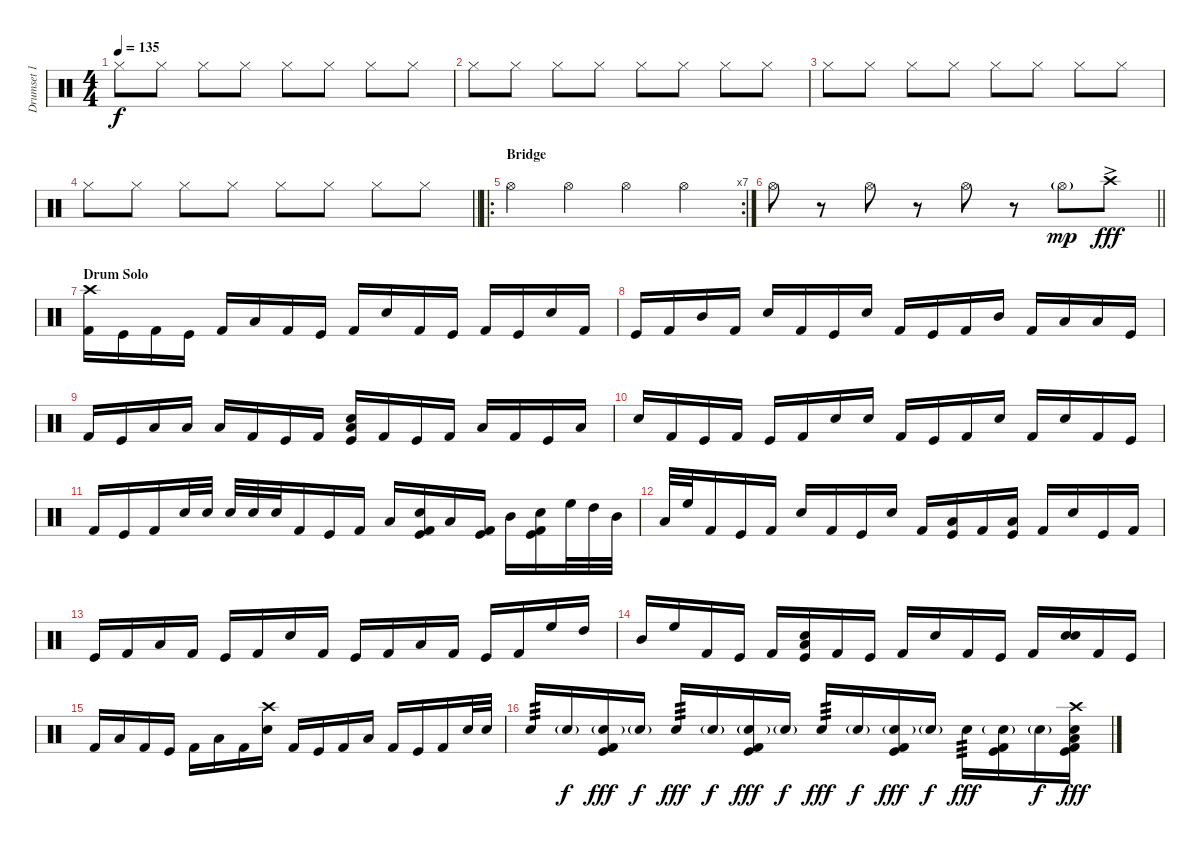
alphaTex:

\track ("Drumset 1" "Drumset 1") {instrument percussion}
\staff {score}
\articulation defaults
\ts (4 4)
\tempo 135
\clef neutral
\ks c "Hi-Hat (closed)".8{dy f} "Hi-Hat (closed)".8 "Hi-Hat (closed)".8 "Hi-Hat (closed)".8 "Hi-Hat (closed)".8 "Hi-Hat (closed)".8 "Hi-Hat (closed)".8 "Hi-Hat (closed)".8
|
"Hi-Hat (closed)".8 "Hi-Hat (closed)".8 "Hi-Hat (closed)".8 "Hi-Hat (closed)".8 "Hi-Hat (closed)".8 "Hi-Hat (closed)".8 "Hi-Hat (closed)".8 "Hi-Hat (closed)".8 |
"Hi-Hat (closed)".8 "Hi-Hat (closed)".8 "Hi-Hat (closed)".8 "Hi-Hat (closed)".8 "Hi-Hat (closed)".8 "Hi-Hat (closed)".8 "Hi-Hat (closed)".8 "Hi-Hat (closed)".8 |
\barLineRight lightlight "Hi-Hat (closed)".8 "Hi-Hat (closed)".8 "Hi-Hat (closed)".8 "Hi-Hat (closed)".8 "Hi-Hat (closed)".8 "Hi-Hat (closed)".8 "Hi-Hat (closed)".8 "Hi-Hat (closed)".8
|
\ro
\rc 7
\section ("" "Bridge")
"Hi-Hat (open)".4 "Hi-Hat (open)".4 "Hi-Hat (open)".4 "Hi-Hat (open)".4 |
\barLineRight lightlight "Hi-Hat (open)".8
r.8 "Hi-Hat (open)".8 r.8 "Hi-Hat (open)".8 r.8 "Hi-Hat (open)"{g}.8{dy mp} "Crash high (hit)"{ac}.8{dy fff} |
\section ("" "Drum Solo")
("Crash high (hit)" "Kick (hit) 2").16 "Kick (hit)".16 "Kick (hit) 2".16 "Kick (hit)".16 "Kick (hit) 2".16 "Low Floor Tom (hit)".16 "Kick (hit) 2".16 "Kick (hit)".16 "Kick (hit) 2".16 "Electric Snare (hit)".16 "Kick (hit) 2".16 "Kick (hit)".16 "Kick (hit) 2".16 "Kick (hit)".16 "Electric Snare (hit)".16 "Kick (hit) 2".16 |
"Kick (hit)".16 "Kick (hit) 2".16 "Mid Tom (hit)".16 "Kick (hit) 2".16 "Electric Snare (hit)".16 "Kick (hit) 2".16 "Kick (hit)".16 "Electric Snare (hit)".16 "Kick (hit) 2".16 "Kick (hit)".16 "Kick (hit) 2".16 "Mid Tom (hit)".16 "Kick (hit) 2".16 "Low Floor Tom (hit)".16 "Low Floor Tom (hit)".16 "Kick (hit)".16 |
"Kick (hit) 2".16 "Kick (hit)".16 "Low Floor Tom (hit)".16 "Low Floor Tom (hit)".16 "Low Floor Tom (hit)".16 "Kick (hit) 2".16 "Kick (hit)".16 "Kick (hit) 2".16 ("Electric Snare (hit)" "Low Floor Tom (hit)" "Kick (hit)").16 "Kick (hit) 2".16 "Kick (hit)".16 "Kick (hit) 2".16 "Low Tom (hit)".16 "Kick (hit) 2".16 "Kick (hit)".16 "Low Floor Tom (hit)".16 |
"Electric Snare (hit)".16 "Kick (hit) 2".16 "Kick (hit)".16 "Kick (hit) 2".16 "Kick (hit)".16 "Kick (hit) 2".16 "Electric Snare (hit)".16 "Electric Snare (hit)".16 "Kick (hit) 2".16 "Kick (hit)".16 "Kick (hit) 2".16 "Electric Snare (hit)".16 "Kick (hit) 2".16 "Electric Snare (hit)".16 "Kick (hit) 2".16 "Kick (hit)".16 |
"Kick (hit) 2".16 "Kick (hit)".16 "Kick (hit) 2".16 "Electric Snare (hit)".32 "Electric Snare (hit)".32 "Electric Snare (hit)".32 "Electric Snare (hit)".32 "Electric Snare (hit)".32 "Kick (hit) 2".16 "Kick (hit)".16 "Kick (hit) 2".16 "Low Floor Tom (hit)".16 ("Electric Snare (hit)" "Kick (hit)" "Kick (hit) 2").16 "Low Tom (hit)".16 ("Kick (hit)" "Kick (hit) 2").16 "Mid Tom (hit)".16 ("Electric Snare (hit)" "Kick (hit)" "Kick (hit) 2").16 "High Floor Tom (hit)".32 "High Tom (hit)".32 "Mid Tom (hit)".32 |
"Low Tom (hit)".32 "High Floor Tom (hit)".32 "Kick (hit) 2".16 "Kick (hit)".16 "Kick (hit) 2".16 "Electric Snare (hit)".16 "Kick (hit) 2".16 "Kick (hit)".16 "Electric Snare (hit)".16 "Kick (hit) 2".16 ("Low Floor Tom (hit)" "Kick (hit)").16 "Kick (hit) 2".16 ("Low Floor Tom (hit)" "Kick (hit)").16 "Kick (hit) 2".16 "Electric Snare (hit)".16 "Kick (hit)".16 "Kick (hit) 2".16 |
"Kick (hit)".16 "Kick (hit) 2".16 "Low Floor Tom (hit)".16 "Kick (hit) 2".16 "Kick (hit)".16 "Kick (hit) 2".16 "Electric Snare (hit)".16 "Kick (hit) 2".16 "Kick (hit)".16 "Kick (hit) 2".16 "Low Tom (hit)".16 "Kick (hit) 2".16 "Kick (hit)".16 "Kick (hit) 2".16 "High Floor Tom (hit)".16 "High Tom (hit)".16 |
"Mid Tom (hit)".16 "High Floor Tom (hit)".16 "Kick (hit) 2".16 "Kick (hit)".16 "Kick (hit) 2".16 ("Electric Snare (hit)" "Low Floor Tom (hit)" "Kick (hit)").16 "Kick (hit) 2".16 "Kick (hit)".16 "Kick (hit) 2".16 "Electric Snare (hit)".16 "Kick (hit) 2".16 "Kick (hit)".16 "Kick (hit) 2".16 ("Electric Snare (hit)" "Snare (hit) 2").16 "Kick (hit) 2".16 "Kick (hit)".16 |
"Kick (hit) 2".16 "Low Floor Tom (hit)".16 "Kick (hit) 2".16 "Kick (hit)".16 "Kick (hit) 2".16 "Low Floor Tom (hit)".16 "Kick (hit) 2".16 ("Crash high (hit)" "Electric Snare (hit)").16 "Kick (hit) 2".16 "Kick (hit)".16 "Kick (hit) 2".16 "Low Floor Tom (hit)".16 "Kick (hit) 2".16 "Kick (hit)".16 "Kick (hit) 2".16 "Electric Snare (hit)".32 "Electric Snare (hit)".32 |
"Electric Snare (hit)".16{tp 3} "Electric Snare (hit)"{g}.16{dy f} ("Electric Snare (hit)"{g} "Kick (hit)" "Kick (hit) 2").16{dy fff} "Electric Snare (hit)"{g}.16{dy f} "Electric Snare (hit)".16{tp 3 dy fff} "Electric Snare (hit)"{g}.16{dy f} ("Electric Snare (hit)"{g} "Kick (hit) 2" "Kick (hit)").16{dy fff} "Electric Snare (hit)"{g}.16{dy f} "Electric Snare (hit)".16{tp 3 dy fff} "Electric Snare (hit)"{g}.16{dy f} ("Electric Snare (hit)"{g} "Kick (hit)" "Kick (hit) 2").16{dy fff} "Electric Snare (hit)"{g}.16{dy f} "Electric Snare (hit)".16{tp 3 dy fff} ("Electric Snare (hit)"{g} "Kick (hit) 2" "Kick (hit)").16 "Electric Snare (hit)"{g}.16{dy f} ("Crash high (hit)" "Low Floor Tom (hit)" "Electric Snare (hit)" "Kick (hit)" "Kick (hit) 2").16{dy fff}
